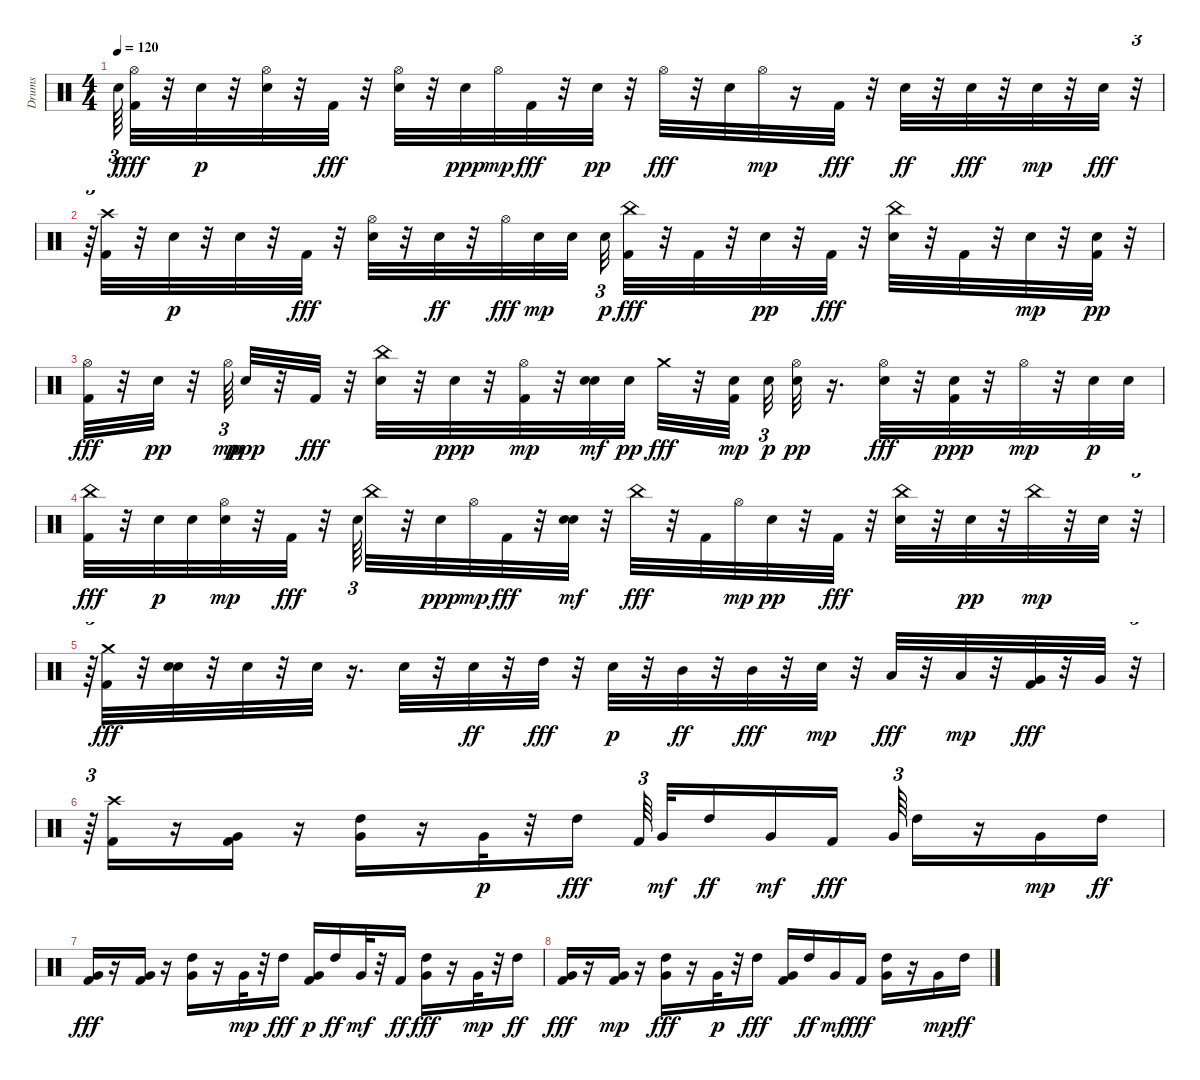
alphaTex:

\track ("Drums" "Drums") {instrument percussion}
\staff {score}
\articulation defaults
\ts (4 4)
\tempo 120
\clef neutral
\ks c "Snare (hit)"{t}.64{tu (3 2) dy f}
("Kick (hit) 2" "Hi-Hat (open)").32{dy fff} r.32 "Snare (hit) 2".32{dy p} r.32 ("Hi-Hat (open)" "Snare (hit) 2").32 r.32 "Kick (hit) 2".32{dy fff} r.32 ("Snare (hit) 2" "Hi-Hat (open)").32 r.32 "Snare (hit) 2".32{dy ppp} "Hi-Hat (open)".32{dy mp} "Kick (hit) 2".32{dy fff} r.32 "Snare (hit) 2".32{dy pp} r.32 "Hi-Hat (open)".32{dy fff} r.32 "Snare (hit) 2".32 "Hi-Hat (open)".32{dy mp} r.16 "Kick (hit) 2".32{dy fff} r.32 "Snare (hit) 2".32{dy ff} r.32 "Snare (hit) 2".32{dy fff} r.32 "Snare (hit) 2".32{dy mp} r.32 "Snare (hit) 2".32{dy fff} r.32{tu (3 2)} |
r.64{tu (3 2)} ("Kick (hit) 2" "Crash high (hit)").32 r.32 "Snare (hit) 2".32{dy p} r.32 "Snare (hit) 2".32 r.32 "Kick (hit) 2".32{dy fff} r.32 ("Snare (hit) 2" "Hi-Hat (open)").32 r.32 "Snare (hit) 2".32{dy ff} r.32 "Hi-Hat (open)".32{dy fff} "Snare (hit) 2".32{dy mp} "Snare (hit) 2".32{beam splitsecondary} "Snare (hit) 2".32{tu (3 2) dy p} ("Kick (hit) 2" "China (hit)").32{dy fff} r.32 "Kick (hit) 2".32 r.32 "Snare (hit) 2".32{dy pp} r.32 "Kick (hit) 2".32{dy fff} r.32 ("Snare (hit) 2" "China (hit)").32 r.32 "Kick (hit) 2".32 r.32 "Snare (hit) 2".32{dy mp} r.32 ("Kick (hit) 2" "Snare (hit) 2").32{dy pp} r.32 |
("Kick (hit) 2" "Hi-Hat (open)").32{dy fff} r.32 "Snare (hit) 2".32{dy pp} r.32 "Hi-Hat (open)".64{tu (3 2) dy mp} "Snare (hit) 2".32{dy ppp} r.32 "Kick (hit) 2".32{dy fff} r.32 ("Snare (hit) 2" "China (hit)").32 r.32 "Snare (hit) 2".32{dy ppp} r.32 ("Kick (hit) 2" "Hi-Hat (open)").32{dy mp} r.32 ("Snare (hit) 2" "Snare (hit) 2").32{dy mf} "Snare (hit) 2".32{dy pp} "Crash medium (hit)".32{dy fff} r.32 ("Kick (hit) 2" "Snare (hit) 2").32{dy mp beam splitsecondary} "Snare (hit) 2".32{tu (3 2) dy p} ("Hi-Hat (open)" "Snare (hit) 2").32{dy pp} r.16{d} ("Snare (hit) 2" "Hi-Hat (open)").32{dy fff} r.32 ("Kick (hit) 2" "Snare (hit) 2").32{dy ppp} r.32 "Hi-Hat (open)".32{dy mp} r.32 "Snare (hit) 2".32{dy p} "Snare (hit) 2".32 |
("Kick (hit) 2" "China (hit)").32{dy fff} r.32 "Snare (hit) 2".32{dy p} "Snare (hit) 2".32 ("Snare (hit) 2" "Hi-Hat (open)").32{dy mp} r.32 "Kick (hit) 2".32{dy fff} r.32 "Snare (hit) 2".64{tu (3 2)} "China (hit)".32 r.32 "Snare (hit) 2".32{dy ppp} "Hi-Hat (open)".32{dy mp} "Kick (hit) 2".32{dy fff} r.32 ("Snare (hit) 2" "Snare (hit) 2").32{dy mf} r.32 "China (hit)".32{dy fff} r.32 "Kick (hit) 2".32 "Hi-Hat (open)".32{dy mp} "Snare (hit) 2".32{dy pp} r.32 "Kick (hit) 2".32{dy fff} r.32 ("Snare (hit) 2" "China (hit)").32 r.32 "Snare (hit) 2".32{dy pp} r.32 "China (hit)".32{dy mp} r.32 "Snare (hit) 2".32 r.32{tu (3 2)} |
r.64{tu (3 2)} ("Crash medium (hit)" "Kick (hit) 2").32{dy fff} r.32 ("Snare (hit) 2" "Snare (hit) 2").32 r.32 "Snare (hit) 2".32 r.32 "Snare (hit) 2".32 r.16{d} "Snare (hit) 2".32 r.32 "Snare (hit) 2".32{dy ff} r.32 "High Tom (hit)".32{dy fff} r.32 "Snare (hit) 2".32{dy p} r.32 "Mid Tom (hit)".32{dy ff} r.32 "Mid Tom (hit)".32{dy fff} r.32 "Snare (hit) 2".32{dy mp} r.32 "Low Tom (hit)".32{dy fff} r.32 "Low Tom (hit)".32{dy mp} r.32 ("Kick (hit) 2" "Very Low Tom (hit)").32{dy fff} r.32 "Very Low Tom (hit)".32 r.32{tu (3 2)} |
r.64{tu (3 2)} ("Crash high (hit)" "Kick (hit) 2").16 r.16 ("Very Low Tom (hit)" "Kick (hit) 2").16 r.16 ("Very Low Tom (hit)" "High Tom (hit)").16 r.16 "Very Low Tom (hit)".32{dy p} r.32 "High Tom (hit)".16{dy fff} "Kick (hit) 2".64{tu (3 2) beam splitsecondary} "Very Low Tom (hit)".32{dy mf} "High Tom (hit)".16{dy ff} "Very Low Tom (hit)".16{dy mf} "Kick (hit) 2".16{dy fff beam splitsecondary} "Very Low Tom (hit)".64{tu (3 2)} "High Tom (hit)".16 r.16 "Very Low Tom (hit)".16{dy mp} "High Tom (hit)".16{dy ff} |
("Very Low Tom (hit)" "Kick (hit) 2").16{dy fff} r.16 ("Kick (hit) 2" "Very Low Tom (hit)").16 r.16 ("Very Low Tom (hit)" "High Tom (hit)").16 r.16 "Very Low Tom (hit)".32{dy mp} r.32 "High Tom (hit)".16{dy fff} ("Kick (hit) 2" "Very Low Tom (hit)").16{dy p} "High Tom (hit)".16{dy ff} "Very Low Tom (hit)".32{dy mf} r.32 "Kick (hit) 2".16{dy ff} ("Very Low Tom (hit)" "High Tom (hit)").16{dy fff} r.16 "Very Low Tom (hit)".32{dy mp} r.32 "High Tom (hit)".16{dy ff} |
("Kick (hit) 2" "Very Low Tom (hit)").16{dy fff} r.16 ("Kick (hit) 2" "Very Low Tom (hit)").16{dy mp} r.16 ("Very Low Tom (hit)" "High Tom (hit)").16{dy fff} r.16 "Very Low Tom (hit)".32{dy p} r.32 "High Tom (hit)".16{dy fff} ("Very Low Tom (hit)" "Kick (hit) 2").16 "High Tom (hit)".16{dy ff} "Very Low Tom (hit)".16{dy mf} "Kick (hit) 2".16{dy fff} ("Very Low Tom (hit)" "High Tom (hit)").16 r.16 "Very Low Tom (hit)".16{dy mp} "High Tom (hit)".16{dy ff}
